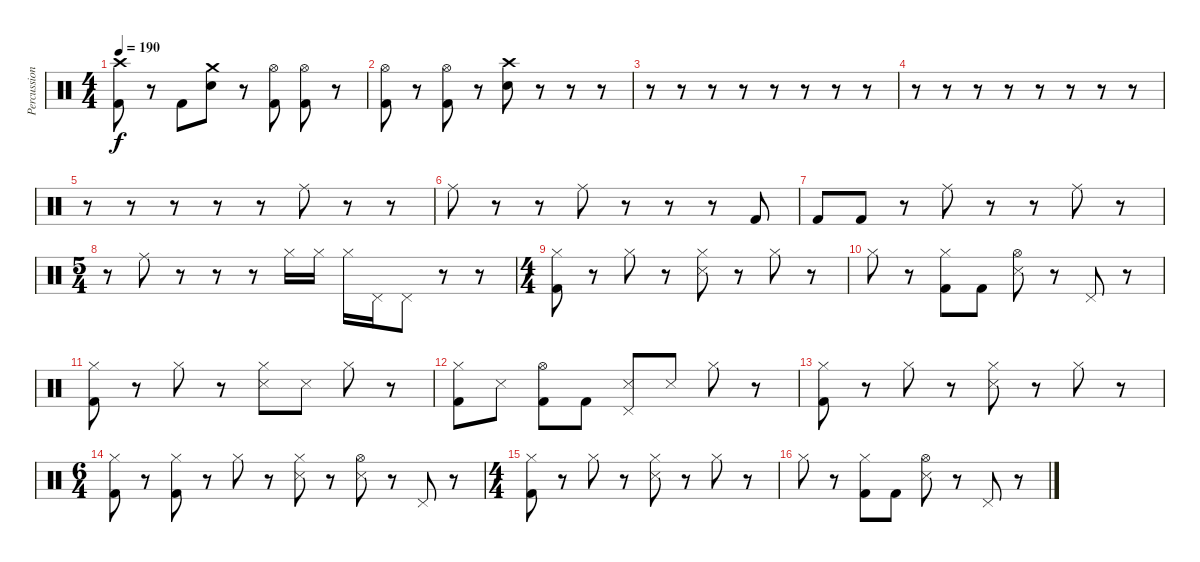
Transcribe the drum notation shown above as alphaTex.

\track ("Percussion" "Percussion") {instrument percussion}
\staff {score}
\articulation defaults
\ts (4 4)
\tempo 190
\clef neutral
\ks c
("Crash high (hit)" "Kick (hit) 2").8{dy f} r.8 "Kick (hit) 2".8 ("Crash medium (hit)" "Snare (hit) 2").8 r.8 ("Hi-Hat (open)" "Kick (hit) 2").8 ("Hi-Hat (open)" "Kick (hit) 2").8 r.8 |
("Hi-Hat (open)" "Kick (hit) 2").8 r.8 ("Hi-Hat (open)" "Kick (hit) 2").8 r.8 ("Crash high (hit)" "Snare (hit) 2").8 r.8 r.8 r.8 |
r.8 r.8 r.8 r.8 r.8 r.8 r.8 r.8 |
r.8 r.8 r.8 r.8 r.8 r.8 r.8 r.8 |
r.8 r.8 r.8 r.8 r.8 "Ride (middle)".8 r.8 r.8 |
"Ride (middle)".8 r.8 r.8 "Ride (middle)".8 r.8 r.8 r.8 "Kick (hit) 2".8 |
"Kick (hit) 2".8 "Kick (hit) 2".8 r.8 "Ride (middle)".8 r.8 r.8 "Ride (middle)".8 r.8 |
\ts (5 4)
r.8 "Ride (middle)".8 r.8 r.8 r.8 "Hi-Hat (closed)".16 "Hi-Hat (closed)".16 "Hi-Hat (closed)".16 "Pedal Hi-Hat (hit)".16 "Pedal Hi-Hat (hit)".8 r.8 r.8 |
\ts (4 4)
("Hi-Hat (closed)" "Kick (hit) 2").8 r.8 "Hi-Hat (closed)".8 r.8 ("Hi-Hat (closed)" "Snare (side stick) 3").8 r.8 "Hi-Hat (closed)".8 r.8 |
"Hi-Hat (closed)".8 r.8 ("Hi-Hat (closed)" "Kick (hit) 2").8 "Kick (hit) 2".8 ("Hi-Hat (open)" "Snare (side stick) 3").8 r.8 "Pedal Hi-Hat (hit)".8 r.8 |
("Hi-Hat (closed)" "Kick (hit) 2").8 r.8 "Hi-Hat (closed)".8 r.8 ("Hi-Hat (closed)" "Snare (side stick) 3").8 "Snare (side stick) 3".8 "Hi-Hat (closed)".8 r.8 |
("Hi-Hat (closed)" "Kick (hit) 2").8 "Snare (side stick) 3".8 ("Hi-Hat (open)" "Kick (hit) 2").8 "Kick (hit) 2".8 ("Pedal Hi-Hat (hit)" "Snare (side stick) 3").8 "Snare (side stick) 3".8 "Hi-Hat (closed)".8 r.8 |
("Hi-Hat (closed)" "Kick (hit) 2").8 r.8 "Hi-Hat (closed)".8 r.8 ("Hi-Hat (closed)" "Snare (side stick) 3").8 r.8 "Hi-Hat (closed)".8 r.8 |
\ts (6 4)
("Hi-Hat (closed)" "Kick (hit) 2").8 r.8 ("Hi-Hat (closed)" "Kick (hit) 2").8 r.8 "Hi-Hat (closed)".8 r.8 ("Hi-Hat (closed)" "Snare (side stick) 3").8 r.8 ("Hi-Hat (open)" "Snare (side stick) 3").8 r.8 "Pedal Hi-Hat (hit)".8 r.8 |
\ts (4 4)
("Hi-Hat (closed)" "Kick (hit) 2").8 r.8 "Hi-Hat (closed)".8 r.8 ("Hi-Hat (closed)" "Snare (side stick) 3").8 r.8 "Hi-Hat (closed)".8 r.8 |
"Hi-Hat (closed)".8 r.8 ("Hi-Hat (closed)" "Kick (hit) 2").8 "Kick (hit) 2".8 ("Hi-Hat (open)" "Snare (side stick) 3").8 r.8 "Pedal Hi-Hat (hit)".8 r.8
